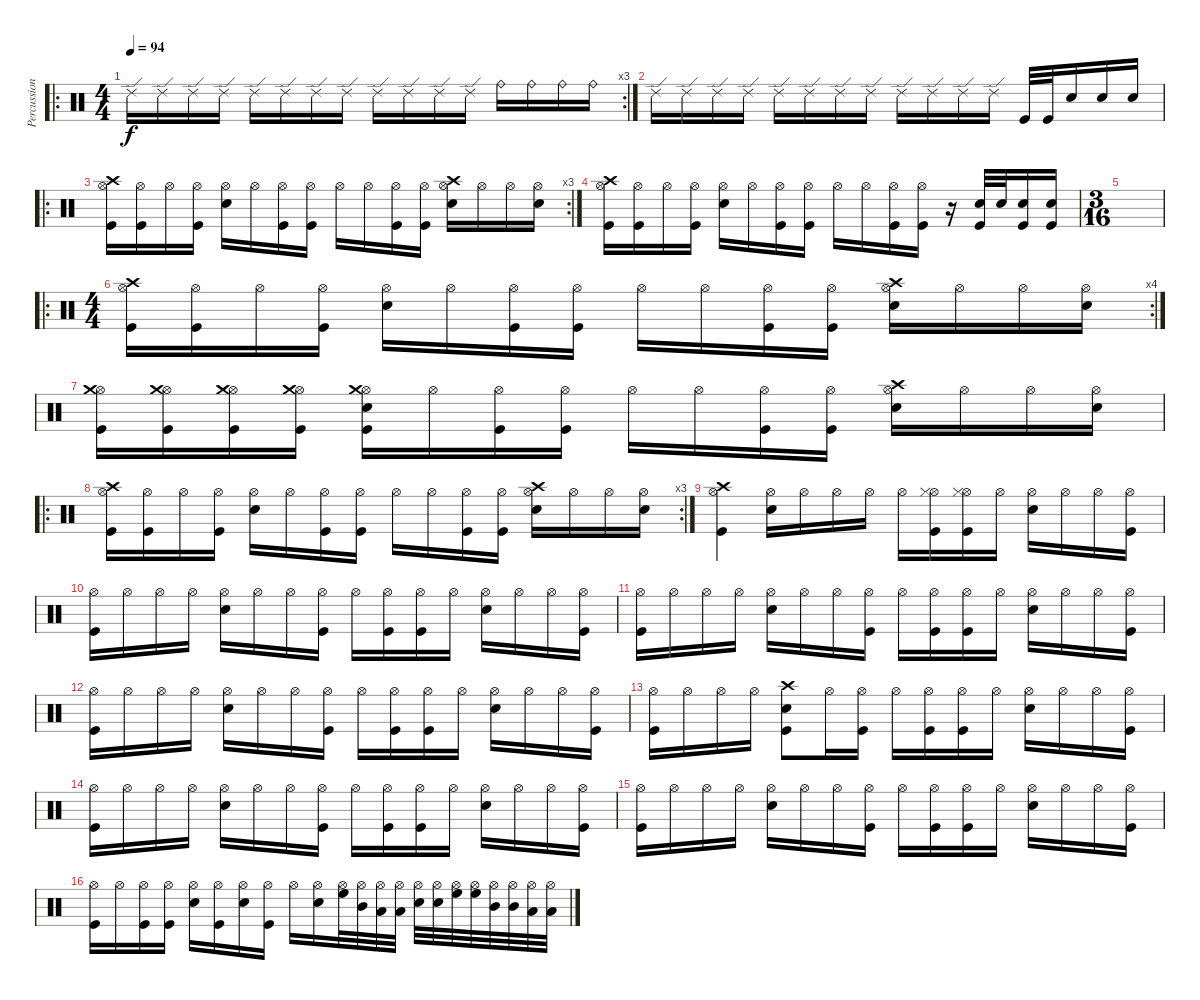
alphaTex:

\track ("Percussion" "Percussion") {instrument percussion}
\staff {score}
\articulation defaults
\ro
\rc 3
\ts (4 4)
\tempo 94
\clef neutral
\ks c "Ride (edge) 2".16{dy f} "Ride (edge) 2".16 "Ride (edge) 2".16 "Ride (edge) 2".16 "Ride (edge) 2".16 "Ride (edge) 2".16 "Ride (edge) 2".16 "Ride (edge) 2".16 "Ride (edge) 2".16 "Ride (edge) 2".16 "Ride (edge) 2".16 "Ride (edge) 2".16 "Ride (bell)".16 "Ride (bell)".16 "Ride (bell)".16 "Ride (bell)".16
|
"Ride (edge) 2".16 "Ride (edge) 2".16 "Ride (edge) 2".16 "Ride (edge) 2".16 "Ride (edge) 2".16 "Ride (edge) 2".16 "Ride (edge) 2".16 "Ride (edge) 2".16 "Ride (edge) 2".16 "Ride (edge) 2".16 "Ride (edge) 2".16 "Ride (edge) 2".16 "Kick (hit)".32 "Kick (hit)".32 "Electric Snare (hit)".16 "Electric Snare (hit)".16 "Electric Snare (hit)".16 |
\ro
\rc 3
("Hi-Hat (open)" "Crash high (hit)" "Kick (hit)").16 ("Hi-Hat (open)" "Kick (hit)").16 "Hi-Hat (open)".16 ("Hi-Hat (open)" "Kick (hit)").16 ("Hi-Hat (open)" "Electric Snare (hit)").16 "Hi-Hat (open)".16 ("Hi-Hat (open)" "Kick (hit)").16 ("Hi-Hat (open)" "Kick (hit)").16 "Hi-Hat (open)".16 "Hi-Hat (open)".16 ("Hi-Hat (open)" "Kick (hit)").16 ("Hi-Hat (open)" "Kick (hit)").16 ("Hi-Hat (open)" "Crash high (hit)" "Electric Snare (hit)").16 "Hi-Hat (open)".16 "Hi-Hat (open)".16 ("Hi-Hat (open)" "Electric Snare (hit)").16 |
("Hi-Hat (open)" "Crash high (hit)" "Kick (hit)").16 ("Hi-Hat (open)" "Kick (hit)").16 "Hi-Hat (open)".16 ("Hi-Hat (open)" "Kick (hit)").16 ("Hi-Hat (open)" "Electric Snare (hit)").16 "Hi-Hat (open)".16 ("Hi-Hat (open)" "Kick (hit)").16 ("Hi-Hat (open)" "Kick (hit)").16 "Hi-Hat (open)".16 "Hi-Hat (open)".16 ("Hi-Hat (open)" "Kick (hit)").16 ("Hi-Hat (open)" "Kick (hit)").16 r.16 ("Electric Snare (hit)" "Kick (hit)").32 "Electric Snare (hit)".32 ("Electric Snare (hit)" "Kick (hit)").16 ("Electric Snare (hit)" "Kick (hit)").16 |
\ts (3 16)
|
\ro
\rc 4
\ts (4 4)
("Hi-Hat (open)" "Crash high (hit)" "Kick (hit)").16 ("Hi-Hat (open)" "Kick (hit)").16 "Hi-Hat (open)".16 ("Hi-Hat (open)" "Kick (hit)").16 ("Hi-Hat (open)" "Electric Snare (hit)").16 "Hi-Hat (open)".16 ("Hi-Hat (open)" "Kick (hit)").16 ("Hi-Hat (open)" "Kick (hit)").16 "Hi-Hat (open)".16 "Hi-Hat (open)".16 ("Hi-Hat (open)" "Kick (hit)").16 ("Hi-Hat (open)" "Kick (hit)").16 ("Hi-Hat (open)" "Crash high (hit)" "Electric Snare (hit)").16 "Hi-Hat (open)".16 "Hi-Hat (open)".16 ("Hi-Hat (open)" "Electric Snare (hit)").16 |
("Hi-Hat (open)" "Crash medium (hit)" "Kick (hit)").16 ("Hi-Hat (open)" "Crash medium (hit)" "Kick (hit)").16 ("Hi-Hat (open)" "Crash medium (hit)" "Kick (hit)").16 ("Hi-Hat (open)" "Crash medium (hit)" "Kick (hit)").16 ("Hi-Hat (open)" "Crash medium (hit)" "Kick (hit)" "Electric Snare (hit)").16 "Hi-Hat (open)".16 ("Hi-Hat (open)" "Kick (hit)").16 ("Hi-Hat (open)" "Kick (hit)").16 "Hi-Hat (open)".16 "Hi-Hat (open)".16 ("Hi-Hat (open)" "Kick (hit)").16 ("Hi-Hat (open)" "Kick (hit)").16 ("Hi-Hat (open)" "Crash high (hit)" "Electric Snare (hit)").16 "Hi-Hat (open)".16 "Hi-Hat (open)".16 ("Hi-Hat (open)" "Electric Snare (hit)").16 |
\ro
\rc 3
("Hi-Hat (open)" "Crash high (hit)" "Kick (hit)").16 ("Hi-Hat (open)" "Kick (hit)").16 "Hi-Hat (open)".16 ("Hi-Hat (open)" "Kick (hit)").16 ("Hi-Hat (open)" "Electric Snare (hit)").16 "Hi-Hat (open)".16 ("Hi-Hat (open)" "Kick (hit)").16 ("Hi-Hat (open)" "Kick (hit)").16 "Hi-Hat (open)".16 "Hi-Hat (open)".16 ("Hi-Hat (open)" "Kick (hit)").16 ("Hi-Hat (open)" "Kick (hit)").16 ("Hi-Hat (open)" "Crash high (hit)" "Electric Snare (hit)").16 "Hi-Hat (open)".16 "Hi-Hat (open)".16 ("Hi-Hat (open)" "Electric Snare (hit)").16 |
("Hi-Hat (open)" "Crash high (hit)" "Kick (hit)").4 ("Hi-Hat (open)" "Electric Snare (hit)").16 "Hi-Hat (open)".16 "Hi-Hat (open)".16 "Hi-Hat (open)".16 "Hi-Hat (open)".16 ("Hi-Hat (open)" "Kick (hit)" "Hi-Hat (closed)").16 ("Hi-Hat (open)" "Kick (hit)" "Hi-Hat (closed)").16 "Hi-Hat (open)".16 ("Hi-Hat (open)" "Electric Snare (hit)").16 "Hi-Hat (open)".16 "Hi-Hat (open)".16 ("Hi-Hat (open)" "Kick (hit)").16 |
("Hi-Hat (open)" "Kick (hit)").16 "Hi-Hat (open)".16 "Hi-Hat (open)".16 "Hi-Hat (open)".16 ("Hi-Hat (open)" "Electric Snare (hit)").16 "Hi-Hat (open)".16 "Hi-Hat (open)".16 ("Hi-Hat (open)" "Kick (hit)").16 "Hi-Hat (open)".16 ("Hi-Hat (open)" "Kick (hit)").16 ("Hi-Hat (open)" "Kick (hit)").16 "Hi-Hat (open)".16 ("Hi-Hat (open)" "Electric Snare (hit)").16 "Hi-Hat (open)".16 "Hi-Hat (open)".16 ("Hi-Hat (open)" "Kick (hit)").16 |
("Hi-Hat (open)" "Kick (hit)").16 "Hi-Hat (open)".16 "Hi-Hat (open)".16 "Hi-Hat (open)".16 ("Hi-Hat (open)" "Electric Snare (hit)").16 "Hi-Hat (open)".16 "Hi-Hat (open)".16 ("Hi-Hat (open)" "Kick (hit)").16 "Hi-Hat (open)".16 ("Hi-Hat (open)" "Kick (hit)").16 ("Hi-Hat (open)" "Kick (hit)").16 "Hi-Hat (open)".16 ("Hi-Hat (open)" "Electric Snare (hit)").16 "Hi-Hat (open)".16 "Hi-Hat (open)".16 ("Hi-Hat (open)" "Kick (hit)").16 |
("Hi-Hat (open)" "Kick (hit)").16 "Hi-Hat (open)".16 "Hi-Hat (open)".16 "Hi-Hat (open)".16 ("Hi-Hat (open)" "Electric Snare (hit)").16 "Hi-Hat (open)".16 "Hi-Hat (open)".16 ("Hi-Hat (open)" "Kick (hit)").16 "Hi-Hat (open)".16 ("Hi-Hat (open)" "Kick (hit)").16 ("Hi-Hat (open)" "Kick (hit)").16 "Hi-Hat (open)".16 ("Hi-Hat (open)" "Electric Snare (hit)").16 "Hi-Hat (open)".16 "Hi-Hat (open)".16 ("Hi-Hat (open)" "Kick (hit)").16 |
("Hi-Hat (open)" "Kick (hit)").16 "Hi-Hat (open)".16 "Hi-Hat (open)".16 "Hi-Hat (open)".16 ("Crash high (hit)" "Electric Snare (hit)" "Kick (hit)").8 "Hi-Hat (open)".16 ("Hi-Hat (open)" "Kick (hit)").16 "Hi-Hat (open)".16 ("Hi-Hat (open)" "Kick (hit)").16 ("Hi-Hat (open)" "Kick (hit)").16 "Hi-Hat (open)".16 ("Hi-Hat (open)" "Electric Snare (hit)").16 "Hi-Hat (open)".16 "Hi-Hat (open)".16 ("Hi-Hat (open)" "Kick (hit)").16 |
("Hi-Hat (open)" "Kick (hit)").16 "Hi-Hat (open)".16 "Hi-Hat (open)".16 "Hi-Hat (open)".16 ("Hi-Hat (open)" "Electric Snare (hit)").16 "Hi-Hat (open)".16 "Hi-Hat (open)".16 ("Hi-Hat (open)" "Kick (hit)").16 "Hi-Hat (open)".16 ("Hi-Hat (open)" "Kick (hit)").16 ("Hi-Hat (open)" "Kick (hit)").16 "Hi-Hat (open)".16 ("Hi-Hat (open)" "Electric Snare (hit)").16 "Hi-Hat (open)".16 "Hi-Hat (open)".16 ("Hi-Hat (open)" "Kick (hit)").16 |
("Hi-Hat (open)" "Kick (hit)").16 "Hi-Hat (open)".16 "Hi-Hat (open)".16 "Hi-Hat (open)".16 ("Hi-Hat (open)" "Electric Snare (hit)").16 "Hi-Hat (open)".16 "Hi-Hat (open)".16 ("Hi-Hat (open)" "Kick (hit)").16 "Hi-Hat (open)".16 ("Hi-Hat (open)" "Kick (hit)").16 ("Hi-Hat (open)" "Kick (hit)").16 "Hi-Hat (open)".16 ("Hi-Hat (open)" "Electric Snare (hit)").16 "Hi-Hat (open)".16 "Hi-Hat (open)".16 ("Hi-Hat (open)" "Kick (hit)").16 |
("Hi-Hat (open)" "Kick (hit)").16 "Hi-Hat (open)".16 ("Hi-Hat (open)" "Kick (hit)").16 ("Hi-Hat (open)" "Kick (hit)").16 ("Hi-Hat (open)" "Electric Snare (hit)").16 ("Hi-Hat (open)" "Kick (hit)").16 ("Hi-Hat (open)" "Electric Snare (hit)").16 ("Hi-Hat (open)" "Kick (hit)").16 "Hi-Hat (open)".16 ("Hi-Hat (open)" "Electric Snare (hit)").16 ("Hi-Hat (open)" "High Floor Tom (hit)").32 ("Hi-Hat (open)" "Mid Tom (hit)").32 ("Hi-Hat (open)" "Low Tom (hit)").32 ("Hi-Hat (open)" "Low Tom (hit)").32 ("Hi-Hat (open)" "Electric Snare (hit)").32 ("Hi-Hat (open)" "Electric Snare (hit)").32 ("Hi-Hat (open)" "High Floor Tom (hit)").32 ("Hi-Hat (open)" "High Floor Tom (hit)").32 ("Hi-Hat (open)" "Mid Tom (hit)").32 ("Hi-Hat (open)" "Mid Tom (hit)").32 ("Hi-Hat (open)" "Low Tom (hit)").32 ("Hi-Hat (open)" "Low Tom (hit)").32
